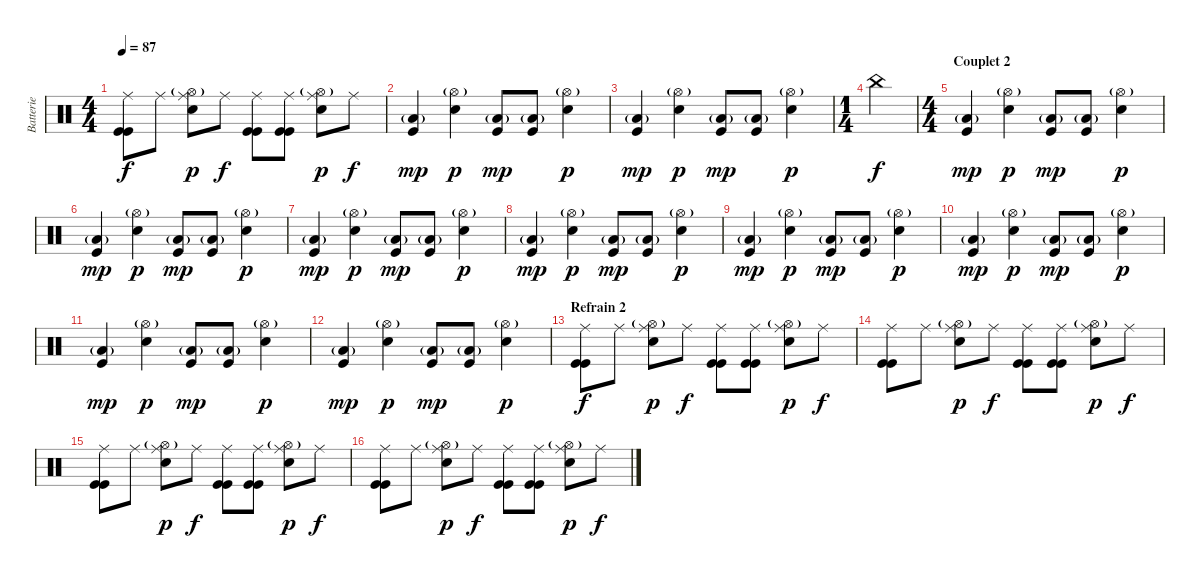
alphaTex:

\track ("Batterie" "Batterie") {instrument percussion}
\staff {score}
\articulation defaults
\ts (4 4)
\tempo 87
\clef neutral
\ks c
("Ride (middle)" "Kick (hit)" "Kick (hit)").8{dy f} "Ride (middle)".8 ("Hi-Hat (open)"{g} "Ride (middle)" "Electric Snare (hit)").8{dy p} "Ride (middle)".8{dy f} ("Ride (middle)" "Kick (hit)" "Kick (hit)").8 ("Ride (middle)" "Kick (hit)" "Kick (hit)").8 ("Hi-Hat (open)"{g} "Ride (middle)" "Electric Snare (hit)").8{dy p} "Ride (middle)".8{dy f} |
("Kick (hit)" "Low Floor Tom (hit)"{g}).4{dy mp} ("Hi-Hat (open)"{g} "Electric Snare (hit)").4{dy p} ("Kick (hit)" "Low Floor Tom (hit)"{g}).8{dy mp} ("Kick (hit)" "Low Floor Tom (hit)"{g}).8 ("Hi-Hat (open)"{g} "Electric Snare (hit)").4{dy p} |
("Kick (hit)" "Low Floor Tom (hit)"{g}).4{dy mp} ("Hi-Hat (open)"{g} "Electric Snare (hit)").4{dy p} ("Kick (hit)" "Low Floor Tom (hit)"{g}).8{dy mp} ("Kick (hit)" "Low Floor Tom (hit)"{g}).8 ("Hi-Hat (open)"{g} "Electric Snare (hit)").4{dy p} |
\ts (1 4)
"China (hit)".4{dy f} |
\ts (4 4)
\section ("" "Couplet 2")
("Kick (hit)" "Low Floor Tom (hit)"{g}).4{dy mp} ("Hi-Hat (open)"{g} "Electric Snare (hit)").4{dy p} ("Kick (hit)" "Low Floor Tom (hit)"{g}).8{dy mp} ("Kick (hit)" "Low Floor Tom (hit)"{g}).8 ("Hi-Hat (open)"{g} "Electric Snare (hit)").4{dy p} |
("Kick (hit)" "Low Floor Tom (hit)"{g}).4{dy mp} ("Hi-Hat (open)"{g} "Electric Snare (hit)").4{dy p} ("Kick (hit)" "Low Floor Tom (hit)"{g}).8{dy mp} ("Kick (hit)" "Low Floor Tom (hit)"{g}).8 ("Hi-Hat (open)"{g} "Electric Snare (hit)").4{dy p} |
("Kick (hit)" "Low Floor Tom (hit)"{g}).4{dy mp} ("Hi-Hat (open)"{g} "Electric Snare (hit)").4{dy p} ("Kick (hit)" "Low Floor Tom (hit)"{g}).8{dy mp} ("Kick (hit)" "Low Floor Tom (hit)"{g}).8 ("Hi-Hat (open)"{g} "Electric Snare (hit)").4{dy p} |
("Kick (hit)" "Low Floor Tom (hit)"{g}).4{dy mp} ("Hi-Hat (open)"{g} "Electric Snare (hit)").4{dy p} ("Kick (hit)" "Low Floor Tom (hit)"{g}).8{dy mp} ("Kick (hit)" "Low Floor Tom (hit)"{g}).8 ("Hi-Hat (open)"{g} "Electric Snare (hit)").4{dy p} |
("Kick (hit)" "Low Floor Tom (hit)"{g}).4{dy mp} ("Hi-Hat (open)"{g} "Electric Snare (hit)").4{dy p} ("Kick (hit)" "Low Floor Tom (hit)"{g}).8{dy mp} ("Kick (hit)" "Low Floor Tom (hit)"{g}).8 ("Hi-Hat (open)"{g} "Electric Snare (hit)").4{dy p} |
("Kick (hit)" "Low Floor Tom (hit)"{g}).4{dy mp} ("Hi-Hat (open)"{g} "Electric Snare (hit)").4{dy p} ("Kick (hit)" "Low Floor Tom (hit)"{g}).8{dy mp} ("Kick (hit)" "Low Floor Tom (hit)"{g}).8 ("Hi-Hat (open)"{g} "Electric Snare (hit)").4{dy p} |
("Kick (hit)" "Low Floor Tom (hit)"{g}).4{dy mp} ("Hi-Hat (open)"{g} "Electric Snare (hit)").4{dy p} ("Kick (hit)" "Low Floor Tom (hit)"{g}).8{dy mp} ("Kick (hit)" "Low Floor Tom (hit)"{g}).8 ("Hi-Hat (open)"{g} "Electric Snare (hit)").4{dy p} |
("Kick (hit)" "Low Floor Tom (hit)"{g}).4{dy mp} ("Hi-Hat (open)"{g} "Electric Snare (hit)").4{dy p} ("Kick (hit)" "Low Floor Tom (hit)"{g}).8{dy mp} ("Kick (hit)" "Low Floor Tom (hit)"{g}).8 ("Hi-Hat (open)"{g} "Electric Snare (hit)").4{dy p} |
\section ("" "Refrain 2")
("Ride (middle)" "Kick (hit)" "Kick (hit)").8{dy f} "Ride (middle)".8 ("Hi-Hat (open)"{g} "Ride (middle)" "Electric Snare (hit)").8{dy p} "Ride (middle)".8{dy f} ("Ride (middle)" "Kick (hit)" "Kick (hit)").8 ("Ride (middle)" "Kick (hit)" "Kick (hit)").8 ("Hi-Hat (open)"{g} "Ride (middle)" "Electric Snare (hit)").8{dy p} "Ride (middle)".8{dy f} |
("Ride (middle)" "Kick (hit)" "Kick (hit)").8 "Ride (middle)".8 ("Hi-Hat (open)"{g} "Ride (middle)" "Electric Snare (hit)").8{dy p} "Ride (middle)".8{dy f} ("Ride (middle)" "Kick (hit)" "Kick (hit)").8 ("Ride (middle)" "Kick (hit)" "Kick (hit)").8 ("Hi-Hat (open)"{g} "Ride (middle)" "Electric Snare (hit)").8{dy p} "Ride (middle)".8{dy f} |
("Ride (middle)" "Kick (hit)" "Kick (hit)").8 "Ride (middle)".8 ("Hi-Hat (open)"{g} "Ride (middle)" "Electric Snare (hit)").8{dy p} "Ride (middle)".8{dy f} ("Ride (middle)" "Kick (hit)" "Kick (hit)").8 ("Ride (middle)" "Kick (hit)" "Kick (hit)").8 ("Hi-Hat (open)"{g} "Ride (middle)" "Electric Snare (hit)").8{dy p} "Ride (middle)".8{dy f} |
("Ride (middle)" "Kick (hit)" "Kick (hit)").8 "Ride (middle)".8 ("Hi-Hat (open)"{g} "Ride (middle)" "Electric Snare (hit)").8{dy p} "Ride (middle)".8{dy f} ("Ride (middle)" "Kick (hit)" "Kick (hit)").8 ("Ride (middle)" "Kick (hit)" "Kick (hit)").8 ("Hi-Hat (open)"{g} "Ride (middle)" "Electric Snare (hit)").8{dy p} "Ride (middle)".8{dy f}
